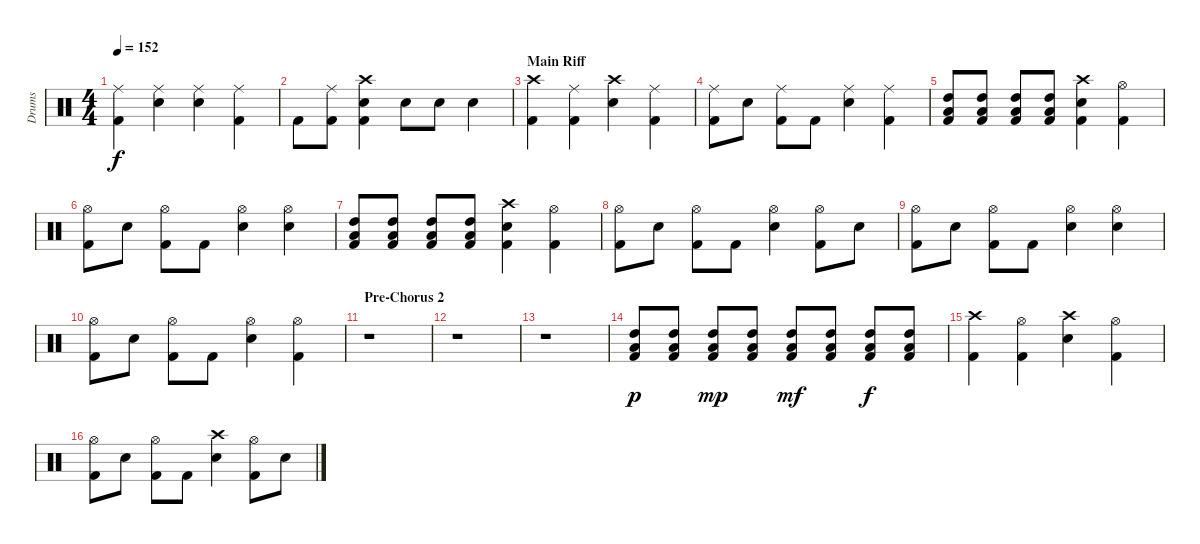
\track ("Drums" "Drums") {instrument percussion}
\staff {score}
\articulation defaults
\ts (4 4)
\tempo 152
\clef neutral
\ks c
("Ride (middle)" "Kick (hit) 2").4{dy f} ("Ride (middle)" "Electric Snare (hit)").4 ("Ride (middle)" "Electric Snare (hit)").4 ("Ride (middle)" "Kick (hit) 2").4 |
"Kick (hit) 2".8 ("Ride (middle)" "Kick (hit) 2").8 ("Crash high (hit)" "Electric Snare (hit)" "Kick (hit) 2").4 "Electric Snare (hit)".8 "Electric Snare (hit)".8 "Electric Snare (hit)".4 |
\section ("" "Main Riff")
("Crash high (hit)" "Kick (hit) 2").4 ("Ride (middle)" "Kick (hit) 2").4 ("Crash high (hit)" "Electric Snare (hit)").4 ("Ride (middle)" "Kick (hit) 2").4 |
("Ride (middle)" "Kick (hit) 2").8 "Electric Snare (hit)".8 ("Ride (middle)" "Kick (hit) 2").8 "Kick (hit) 2".8 ("Ride (middle)" "Electric Snare (hit)").4 ("Ride (middle)" "Kick (hit) 2").4 |
("Low Tom (hit)" "High Tom (hit)" "Kick (hit) 2").8 ("Low Tom (hit)" "High Tom (hit)" "Kick (hit) 2").8 ("Low Tom (hit)" "High Tom (hit)" "Kick (hit) 2").8 ("Low Tom (hit)" "High Tom (hit)" "Kick (hit) 2").8 ("Crash high (hit)" "Electric Snare (hit)" "Kick (hit) 2").4 ("Hi-Hat (open)" "Kick (hit) 2").4 |
("Hi-Hat (open)" "Kick (hit) 2").8 "Electric Snare (hit)".8 ("Hi-Hat (open)" "Kick (hit) 2").8 "Kick (hit) 2".8 ("Hi-Hat (open)" "Electric Snare (hit)").4 ("Hi-Hat (open)" "Electric Snare (hit)").4 |
("Low Tom (hit)" "High Tom (hit)" "Kick (hit) 2").8 ("Low Tom (hit)" "High Tom (hit)" "Kick (hit) 2").8 ("Low Tom (hit)" "High Tom (hit)" "Kick (hit) 2").8 ("Low Tom (hit)" "High Tom (hit)" "Kick (hit) 2").8 ("Crash high (hit)" "Electric Snare (hit)" "Kick (hit) 2").4 ("Hi-Hat (open)" "Kick (hit) 2").4 |
("Hi-Hat (open)" "Kick (hit) 2").8 "Electric Snare (hit)".8 ("Hi-Hat (open)" "Kick (hit) 2").8 "Kick (hit) 2".8 ("Hi-Hat (open)" "Electric Snare (hit)").4 ("Hi-Hat (open)" "Kick (hit) 2").8 "Electric Snare (hit)".8 |
("Hi-Hat (open)" "Kick (hit) 2").8 "Electric Snare (hit)".8 ("Hi-Hat (open)" "Kick (hit) 2").8 "Kick (hit) 2".8 ("Hi-Hat (open)" "Electric Snare (hit)").4 ("Hi-Hat (open)" "Electric Snare (hit)").4 |
("Hi-Hat (open)" "Kick (hit) 2").8 "Electric Snare (hit)".8 ("Hi-Hat (open)" "Kick (hit) 2").8 "Kick (hit) 2".8 ("Hi-Hat (open)" "Electric Snare (hit)").4 ("Hi-Hat (open)" "Kick (hit) 2").4 |
\section ("" "Pre-Chorus 2")
r.1 |
r.1 |
r.1 |
("High Tom (hit)" "Low Tom (hit)" "Kick (hit) 2").8{dy p} ("High Tom (hit)" "Low Tom (hit)" "Kick (hit) 2").8 ("High Tom (hit)" "Low Tom (hit)" "Kick (hit) 2").8{dy mp} ("High Tom (hit)" "Low Tom (hit)" "Kick (hit) 2").8 ("High Tom (hit)" "Low Tom (hit)" "Kick (hit) 2").8{dy mf} ("High Tom (hit)" "Low Tom (hit)" "Kick (hit) 2").8 ("High Tom (hit)" "Low Tom (hit)" "Kick (hit) 2").8{dy f} ("High Tom (hit)" "Low Tom (hit)" "Kick (hit) 2").8 |
("Crash high (hit)" "Kick (hit) 2").4 ("Hi-Hat (open)" "Kick (hit) 2").4 ("Crash high (hit)" "Electric Snare (hit)").4 ("Hi-Hat (open)" "Kick (hit) 2").4 |
("Hi-Hat (open)" "Kick (hit) 2").8 "Electric Snare (hit)".8 ("Hi-Hat (open)" "Kick (hit) 2").8 "Kick (hit) 2".8 ("Crash high (hit)" "Electric Snare (hit)").4 ("Hi-Hat (open)" "Kick (hit) 2").8 "Electric Snare (hit)".8
